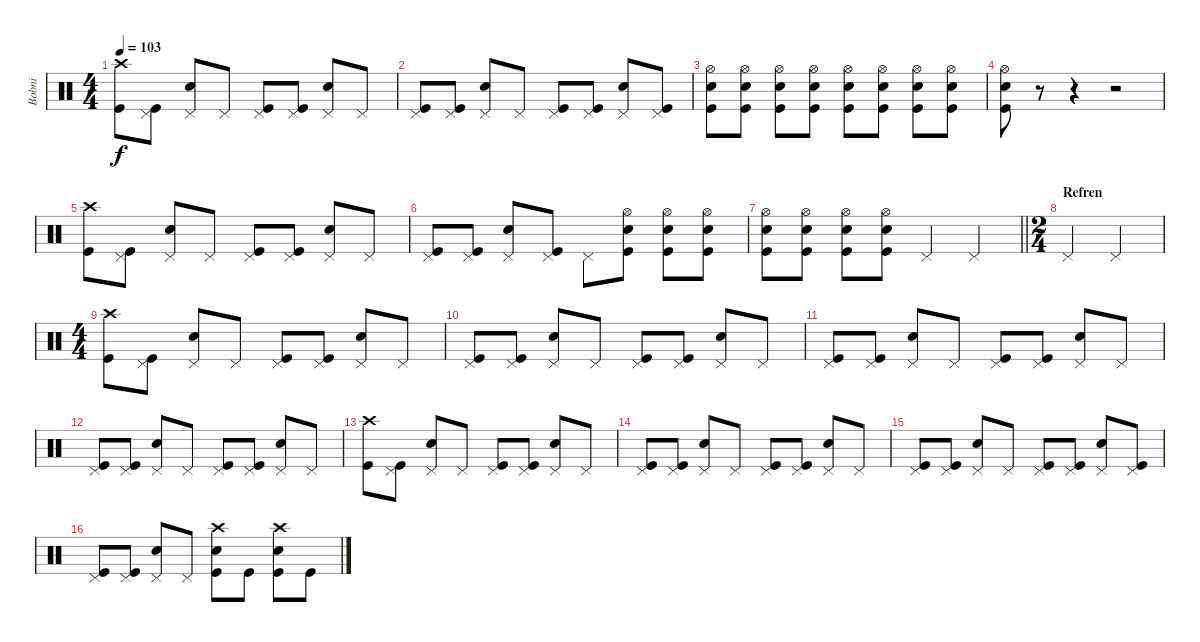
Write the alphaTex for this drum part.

\track ("Bobni" "Bobni") {instrument percussion}
\staff {score}
\articulation defaults
\ts (4 4)
\tempo 103
\clef neutral
\ks aminor
("Crash high (hit)" "Kick (hit)").8{dy f} ("Pedal Hi-Hat (hit)" "Kick (hit)").8 ("Pedal Hi-Hat (hit)" "Snare (hit) 2").8 "Pedal Hi-Hat (hit)".8 ("Pedal Hi-Hat (hit)" "Kick (hit)").8 ("Pedal Hi-Hat (hit)" "Kick (hit)").8 ("Pedal Hi-Hat (hit)" "Snare (hit) 2").8 "Pedal Hi-Hat (hit)".8 |
("Pedal Hi-Hat (hit)" "Kick (hit)").8 ("Pedal Hi-Hat (hit)" "Kick (hit)").8 ("Pedal Hi-Hat (hit)" "Snare (hit) 2").8 "Pedal Hi-Hat (hit)".8 ("Pedal Hi-Hat (hit)" "Kick (hit)").8 ("Pedal Hi-Hat (hit)" "Kick (hit)").8 ("Pedal Hi-Hat (hit)" "Snare (hit) 2").8 ("Pedal Hi-Hat (hit)" "Kick (hit)").8 |
("Hi-Hat (open)" "Snare (hit) 2" "Kick (hit)").8 ("Hi-Hat (open)" "Snare (hit) 2" "Kick (hit)").8 ("Hi-Hat (open)" "Snare (hit) 2" "Kick (hit)").8 ("Hi-Hat (open)" "Snare (hit) 2" "Kick (hit)").8 ("Hi-Hat (open)" "Snare (hit) 2" "Kick (hit)").8 ("Hi-Hat (open)" "Snare (hit) 2" "Kick (hit)").8 ("Hi-Hat (open)" "Snare (hit) 2" "Kick (hit)").8 ("Hi-Hat (open)" "Snare (hit) 2" "Kick (hit)").8 |
("Hi-Hat (open)" "Snare (hit) 2" "Kick (hit)").8 r.8 r.4 r.2 |
("Crash high (hit)" "Kick (hit)").8 ("Pedal Hi-Hat (hit)" "Kick (hit)").8 ("Pedal Hi-Hat (hit)" "Snare (hit) 2").8 "Pedal Hi-Hat (hit)".8 ("Pedal Hi-Hat (hit)" "Kick (hit)").8 ("Pedal Hi-Hat (hit)" "Kick (hit)").8 ("Pedal Hi-Hat (hit)" "Snare (hit) 2").8 "Pedal Hi-Hat (hit)".8 |
("Pedal Hi-Hat (hit)" "Kick (hit)").8 ("Pedal Hi-Hat (hit)" "Kick (hit)").8 ("Pedal Hi-Hat (hit)" "Snare (hit) 2").8 ("Pedal Hi-Hat (hit)" "Kick (hit)").8 "Pedal Hi-Hat (hit)".8 ("Hi-Hat (open)" "Snare (hit) 2" "Kick (hit)").8 ("Hi-Hat (open)" "Snare (hit) 2" "Kick (hit)").8 ("Hi-Hat (open)" "Snare (hit) 2" "Kick (hit)").8 |
\barLineRight lightlight
("Hi-Hat (open)" "Snare (hit) 2" "Kick (hit)").8 ("Hi-Hat (open)" "Snare (hit) 2" "Kick (hit)").8 ("Hi-Hat (open)" "Snare (hit) 2" "Kick (hit)").8 ("Hi-Hat (open)" "Snare (hit) 2" "Kick (hit)").8 "Pedal Hi-Hat (hit)".4 "Pedal Hi-Hat (hit)".4 |
\ts (2 4)
\section ("" "Refren")
"Pedal Hi-Hat (hit)".4 "Pedal Hi-Hat (hit)".4 |
\ts (4 4)
("Crash high (hit)" "Kick (hit)").8 ("Pedal Hi-Hat (hit)" "Kick (hit)").8 ("Pedal Hi-Hat (hit)" "Snare (hit) 2").8 "Pedal Hi-Hat (hit)".8 ("Pedal Hi-Hat (hit)" "Kick (hit)").8 ("Pedal Hi-Hat (hit)" "Kick (hit)").8 ("Pedal Hi-Hat (hit)" "Snare (hit) 2").8 "Pedal Hi-Hat (hit)".8 |
("Pedal Hi-Hat (hit)" "Kick (hit)").8 ("Pedal Hi-Hat (hit)" "Kick (hit)").8 ("Pedal Hi-Hat (hit)" "Snare (hit) 2").8 "Pedal Hi-Hat (hit)".8 ("Pedal Hi-Hat (hit)" "Kick (hit)").8 ("Pedal Hi-Hat (hit)" "Kick (hit)").8 ("Pedal Hi-Hat (hit)" "Snare (hit) 2").8 "Pedal Hi-Hat (hit)".8 |
("Pedal Hi-Hat (hit)" "Kick (hit)").8 ("Pedal Hi-Hat (hit)" "Kick (hit)").8 ("Pedal Hi-Hat (hit)" "Snare (hit) 2").8 "Pedal Hi-Hat (hit)".8 ("Pedal Hi-Hat (hit)" "Kick (hit)").8 ("Pedal Hi-Hat (hit)" "Kick (hit)").8 ("Pedal Hi-Hat (hit)" "Snare (hit) 2").8 "Pedal Hi-Hat (hit)".8 |
("Pedal Hi-Hat (hit)" "Kick (hit)").8 ("Pedal Hi-Hat (hit)" "Kick (hit)").8 ("Pedal Hi-Hat (hit)" "Snare (hit) 2").8 "Pedal Hi-Hat (hit)".8 ("Pedal Hi-Hat (hit)" "Kick (hit)").8 ("Pedal Hi-Hat (hit)" "Kick (hit)").8 ("Pedal Hi-Hat (hit)" "Snare (hit) 2").8 "Pedal Hi-Hat (hit)".8 |
("Crash high (hit)" "Kick (hit)").8 ("Pedal Hi-Hat (hit)" "Kick (hit)").8 ("Pedal Hi-Hat (hit)" "Snare (hit) 2").8 "Pedal Hi-Hat (hit)".8 ("Pedal Hi-Hat (hit)" "Kick (hit)").8 ("Pedal Hi-Hat (hit)" "Kick (hit)").8 ("Pedal Hi-Hat (hit)" "Snare (hit) 2").8 "Pedal Hi-Hat (hit)".8 |
("Pedal Hi-Hat (hit)" "Kick (hit)").8 ("Pedal Hi-Hat (hit)" "Kick (hit)").8 ("Pedal Hi-Hat (hit)" "Snare (hit) 2").8 "Pedal Hi-Hat (hit)".8 ("Pedal Hi-Hat (hit)" "Kick (hit)").8 ("Pedal Hi-Hat (hit)" "Kick (hit)").8 ("Pedal Hi-Hat (hit)" "Snare (hit) 2").8 "Pedal Hi-Hat (hit)".8 |
("Pedal Hi-Hat (hit)" "Kick (hit)").8 ("Pedal Hi-Hat (hit)" "Kick (hit)").8 ("Pedal Hi-Hat (hit)" "Snare (hit) 2").8 "Pedal Hi-Hat (hit)".8 ("Pedal Hi-Hat (hit)" "Kick (hit)").8 ("Pedal Hi-Hat (hit)" "Kick (hit)").8 ("Pedal Hi-Hat (hit)" "Snare (hit) 2").8 ("Pedal Hi-Hat (hit)" "Kick (hit)").8 |
("Pedal Hi-Hat (hit)" "Kick (hit)").8 ("Pedal Hi-Hat (hit)" "Kick (hit)").8 ("Pedal Hi-Hat (hit)" "Snare (hit) 2").8 "Pedal Hi-Hat (hit)".8 ("Crash high (hit)" "Snare (hit) 2" "Kick (hit)").8 "Kick (hit)".8 ("Crash high (hit)" "Snare (hit) 2" "Kick (hit)").8 "Kick (hit)".8
